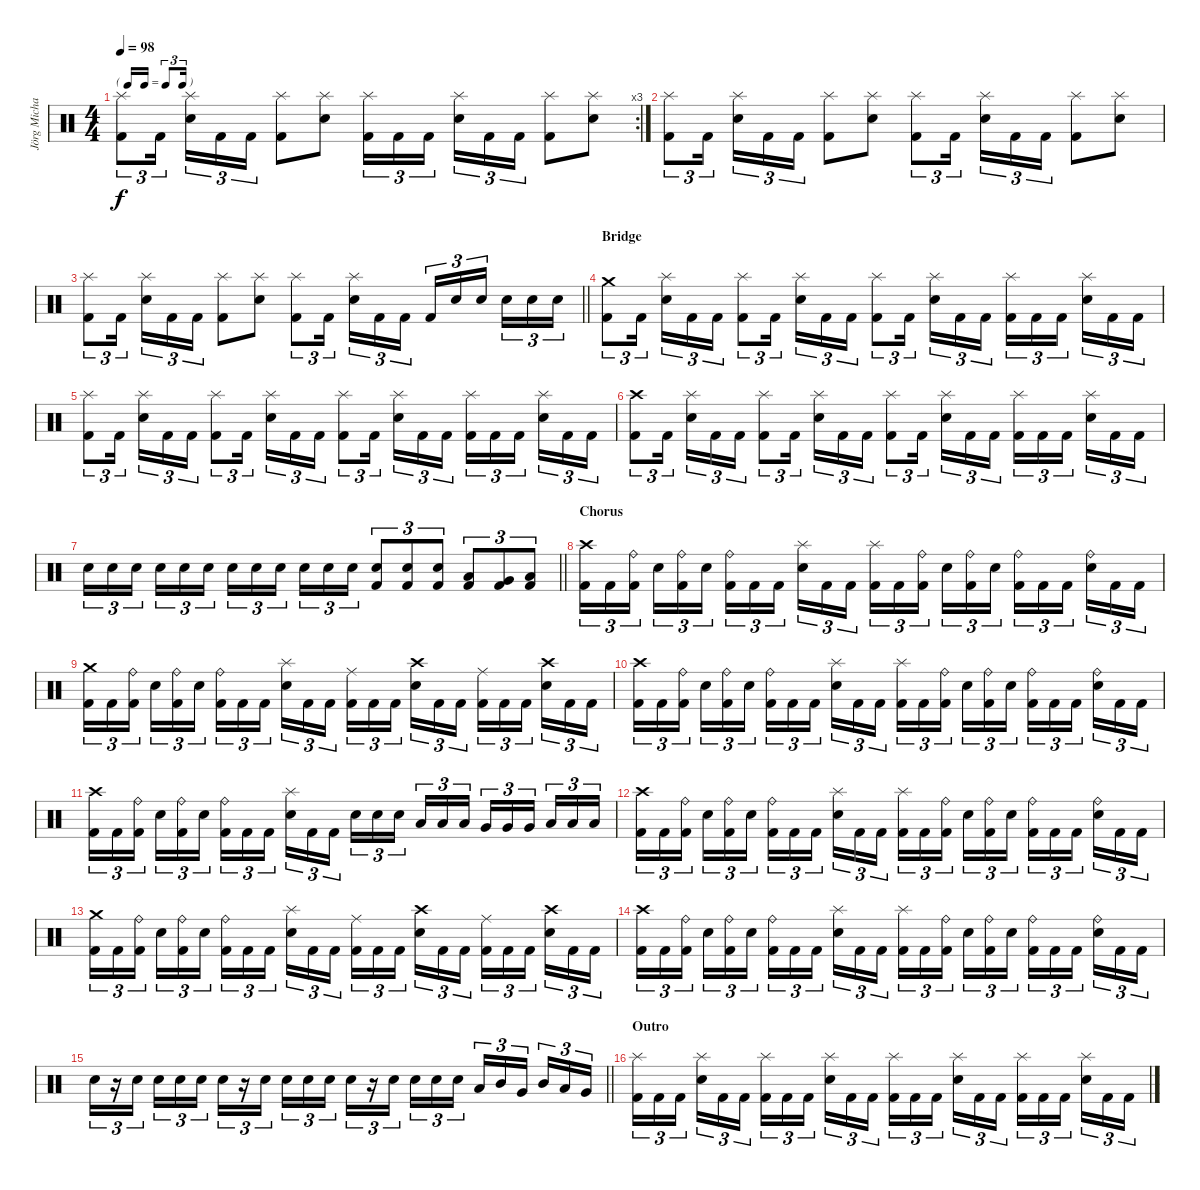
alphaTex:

\track ("Jörg Michael" "Jörg Micha") {instrument percussion}
\staff {score}
\articulation defaults
\rc 3
\ts (4 4)
\tf triplet16th
\tempo 98
\clef neutral
\ks c
("Splash (hit)" "Kick (hit) 2").8{tu (3 2) dy f} "Kick (hit) 2".16{tu (3 2) beam splitsecondary} ("Splash (hit)" "Snare (hit) 2").16{tu (3 2)} "Kick (hit) 2".16{tu (3 2)} "Kick (hit) 2".16{tu (3 2)} ("Splash (hit)" "Kick (hit) 2").8 ("Splash (hit)" "Snare (hit) 2").8 ("Splash (hit)" "Kick (hit) 2").16{tu (3 2)} "Kick (hit) 2".16{tu (3 2)} "Kick (hit) 2".16{tu (3 2) beam splitsecondary} ("Splash (hit)" "Snare (hit) 2").16{tu (3 2)} "Kick (hit) 2".16{tu (3 2)} "Kick (hit) 2".16{tu (3 2)} ("Splash (hit)" "Kick (hit) 2").8 ("Splash (hit)" "Snare (hit) 2").8 |
("Splash (hit)" "Kick (hit) 2").8{tu (3 2)} "Kick (hit) 2".16{tu (3 2) beam splitsecondary} ("Splash (hit)" "Snare (hit) 2").16{tu (3 2)} "Kick (hit) 2".16{tu (3 2)} "Kick (hit) 2".16{tu (3 2)} ("Splash (hit)" "Kick (hit) 2").8 ("Splash (hit)" "Snare (hit) 2").8 ("Splash (hit)" "Kick (hit) 2").8{tu (3 2)} "Kick (hit) 2".16{tu (3 2) beam splitsecondary} ("Splash (hit)" "Snare (hit) 2").16{tu (3 2)} "Kick (hit) 2".16{tu (3 2)} "Kick (hit) 2".16{tu (3 2)} ("Splash (hit)" "Kick (hit) 2").8 ("Splash (hit)" "Snare (hit) 2").8 |
\barLineRight lightlight
("Splash (hit)" "Kick (hit) 2").8{tu (3 2)} "Kick (hit) 2".16{tu (3 2) beam splitsecondary} ("Splash (hit)" "Snare (hit) 2").16{tu (3 2)} "Kick (hit) 2".16{tu (3 2)} "Kick (hit) 2".16{tu (3 2)} ("Splash (hit)" "Kick (hit) 2").8 ("Splash (hit)" "Snare (hit) 2").8 ("Splash (hit)" "Kick (hit) 2").8{tu (3 2)} "Kick (hit) 2".16{tu (3 2) beam splitsecondary} ("Splash (hit)" "Snare (hit) 2").16{tu (3 2)} "Kick (hit) 2".16{tu (3 2)} "Kick (hit) 2".16{tu (3 2)} "Kick (hit) 2".16{tu (3 2)} "Snare (hit) 2".16{tu (3 2)} "Snare (hit) 2".16{tu (3 2) beam splitsecondary} "Snare (hit) 2".16{tu (3 2)} "Snare (hit) 2".16{tu (3 2)} "Snare (hit) 2".16{tu (3 2)} |
\section ("" "Bridge")
("Crash medium (hit)" "Kick (hit) 2").8{tu (3 2)} "Kick (hit) 2".16{tu (3 2) beam splitsecondary} ("Splash (hit)" "Snare (hit) 2").16{tu (3 2)} "Kick (hit) 2".16{tu (3 2)} "Kick (hit) 2".16{tu (3 2)} ("Splash (hit)" "Kick (hit) 2").8{tu (3 2)} "Kick (hit) 2".16{tu (3 2) beam splitsecondary} ("Splash (hit)" "Snare (hit) 2").16{tu (3 2)} "Kick (hit) 2".16{tu (3 2)} "Kick (hit) 2".16{tu (3 2)} ("Splash (hit)" "Kick (hit) 2").8{tu (3 2)} "Kick (hit) 2".16{tu (3 2) beam splitsecondary} ("Splash (hit)" "Snare (hit) 2").16{tu (3 2)} "Kick (hit) 2".16{tu (3 2)} "Kick (hit) 2".16{tu (3 2)} ("Splash (hit)" "Kick (hit) 2").16{tu (3 2)} "Kick (hit) 2".16{tu (3 2)} "Kick (hit) 2".16{tu (3 2) beam splitsecondary} ("Splash (hit)" "Snare (hit) 2").16{tu (3 2)} "Kick (hit) 2".16{tu (3 2)} "Kick (hit) 2".16{tu (3 2)} |
("Splash (hit)" "Kick (hit) 2").8{tu (3 2)} "Kick (hit) 2".16{tu (3 2) beam splitsecondary} ("Splash (hit)" "Snare (hit) 2").16{tu (3 2)} "Kick (hit) 2".16{tu (3 2)} "Kick (hit) 2".16{tu (3 2)} ("Splash (hit)" "Kick (hit) 2").8{tu (3 2)} "Kick (hit) 2".16{tu (3 2) beam splitsecondary} ("Splash (hit)" "Snare (hit) 2").16{tu (3 2)} "Kick (hit) 2".16{tu (3 2)} "Kick (hit) 2".16{tu (3 2)} ("Splash (hit)" "Kick (hit) 2").8{tu (3 2)} "Kick (hit) 2".16{tu (3 2) beam splitsecondary} ("Splash (hit)" "Snare (hit) 2").16{tu (3 2)} "Kick (hit) 2".16{tu (3 2)} "Kick (hit) 2".16{tu (3 2)} ("Splash (hit)" "Kick (hit) 2").16{tu (3 2)} "Kick (hit) 2".16{tu (3 2)} "Kick (hit) 2".16{tu (3 2) beam splitsecondary} ("Splash (hit)" "Snare (hit) 2").16{tu (3 2)} "Kick (hit) 2".16{tu (3 2)} "Kick (hit) 2".16{tu (3 2)} |
("Crash high (hit)" "Kick (hit) 2").8{tu (3 2)} "Kick (hit) 2".16{tu (3 2) beam splitsecondary} ("Splash (hit)" "Snare (hit) 2").16{tu (3 2)} "Kick (hit) 2".16{tu (3 2)} "Kick (hit) 2".16{tu (3 2)} ("Splash (hit)" "Kick (hit) 2").8{tu (3 2)} "Kick (hit) 2".16{tu (3 2) beam splitsecondary} ("Splash (hit)" "Snare (hit) 2").16{tu (3 2)} "Kick (hit) 2".16{tu (3 2)} "Kick (hit) 2".16{tu (3 2)} ("Splash (hit)" "Kick (hit) 2").8{tu (3 2)} "Kick (hit) 2".16{tu (3 2) beam splitsecondary} ("Splash (hit)" "Snare (hit) 2").16{tu (3 2)} "Kick (hit) 2".16{tu (3 2)} "Kick (hit) 2".16{tu (3 2)} ("Splash (hit)" "Kick (hit) 2").16{tu (3 2)} "Kick (hit) 2".16{tu (3 2)} "Kick (hit) 2".16{tu (3 2) beam splitsecondary} ("Splash (hit)" "Snare (hit) 2").16{tu (3 2)} "Kick (hit) 2".16{tu (3 2)} "Kick (hit) 2".16{tu (3 2)} |
\barLineRight lightlight "Snare (hit) 2".16{tu (3 2)} "Snare (hit) 2".16{tu (3 2)} "Snare (hit) 2".16{tu (3 2) beam splitsecondary} "Snare (hit) 2".16{tu (3 2)} "Snare (hit) 2".16{tu (3 2)} "Snare (hit) 2".16{tu (3 2)} "Snare (hit) 2".16{tu (3 2)} "Snare (hit) 2".16{tu (3 2)} "Snare (hit) 2".16{tu (3 2) beam splitsecondary} "Snare (hit) 2".16{tu (3 2)} "Snare (hit) 2".16{tu (3 2)} "Snare (hit) 2".16{tu (3 2)}
("Snare (hit) 2" "Kick (hit) 2").8{tu (3 2)} ("Snare (hit) 2" "Kick (hit) 2").8{tu (3 2)} ("Snare (hit) 2" "Kick (hit) 2").8{tu (3 2)} ("Low Tom (hit)" "Kick (hit) 2").8{tu (3 2)} ("Very Low Tom (hit)" "Kick (hit) 2").8{tu (3 2)} ("Low Floor Tom (hit)" "Kick (hit) 2").8{tu (3 2)} |
\section ("" "Chorus")
("Crash high (hit)" "Kick (hit) 2").16{tu (3 2)} "Kick (hit) 2".16{tu (3 2)} ("Ride (bell)" "Kick (hit) 2").16{tu (3 2) beam splitsecondary} "Snare (hit) 2".16{tu (3 2)} ("Ride (bell)" "Kick (hit) 2").16{tu (3 2)} "Snare (hit) 2".16{tu (3 2)} ("Ride (bell)" "Kick (hit) 2").16{tu (3 2)} "Kick (hit) 2".16{tu (3 2)} "Kick (hit) 2".16{tu (3 2) beam splitsecondary} ("Splash (hit)" "Snare (hit) 2").16{tu (3 2)} "Kick (hit) 2".16{tu (3 2)} "Kick (hit) 2".16{tu (3 2)} ("Splash (hit)" "Kick (hit) 2").16{tu (3 2)} "Kick (hit) 2".16{tu (3 2)} ("Ride (bell)" "Kick (hit) 2").16{tu (3 2) beam splitsecondary} "Snare (hit) 2".16{tu (3 2)} ("Ride (bell)" "Kick (hit) 2").16{tu (3 2)} "Snare (hit) 2".16{tu (3 2)} ("Ride (bell)" "Kick (hit) 2").16{tu (3 2)} "Kick (hit) 2".16{tu (3 2)} "Kick (hit) 2".16{tu (3 2) beam splitsecondary} ("Ride (bell)" "Snare (hit) 2").16{tu (3 2)} "Kick (hit) 2".16{tu (3 2)} "Kick (hit) 2".16{tu (3 2)} |
("Crash medium (hit)" "Kick (hit) 2").16{tu (3 2)} "Kick (hit) 2".16{tu (3 2)} ("Ride (bell)" "Kick (hit) 2").16{tu (3 2) beam splitsecondary} "Snare (hit) 2".16{tu (3 2)} ("Ride (bell)" "Kick (hit) 2").16{tu (3 2)} "Snare (hit) 2".16{tu (3 2)} ("Ride (bell)" "Kick (hit) 2").16{tu (3 2)} "Kick (hit) 2".16{tu (3 2)} "Kick (hit) 2".16{tu (3 2) beam splitsecondary} ("Splash (hit)" "Snare (hit) 2").16{tu (3 2)} "Kick (hit) 2".16{tu (3 2)} "Kick (hit) 2".16{tu (3 2)} ("Ride (middle)" "Kick (hit) 2").16{tu (3 2)} "Kick (hit) 2".16{tu (3 2)} "Kick (hit) 2".16{tu (3 2) beam splitsecondary} ("Crash high (hit)" "Snare (hit) 2").16{tu (3 2)} "Kick (hit) 2".16{tu (3 2)} "Kick (hit) 2".16{tu (3 2)} ("Ride (middle)" "Kick (hit) 2").16{tu (3 2)} "Kick (hit) 2".16{tu (3 2)} "Kick (hit) 2".16{tu (3 2) beam splitsecondary} ("Crash high (hit)" "Snare (hit) 2").16{tu (3 2)} "Kick (hit) 2".16{tu (3 2)} "Kick (hit) 2".16{tu (3 2)} |
("Crash high (hit)" "Kick (hit) 2").16{tu (3 2)} "Kick (hit) 2".16{tu (3 2)} ("Ride (bell)" "Kick (hit) 2").16{tu (3 2) beam splitsecondary} "Snare (hit) 2".16{tu (3 2)} ("Ride (bell)" "Kick (hit) 2").16{tu (3 2)} "Snare (hit) 2".16{tu (3 2)} ("Ride (bell)" "Kick (hit) 2").16{tu (3 2)} "Kick (hit) 2".16{tu (3 2)} "Kick (hit) 2".16{tu (3 2) beam splitsecondary} ("Splash (hit)" "Snare (hit) 2").16{tu (3 2)} "Kick (hit) 2".16{tu (3 2)} "Kick (hit) 2".16{tu (3 2)} ("Splash (hit)" "Kick (hit) 2").16{tu (3 2)} "Kick (hit) 2".16{tu (3 2)} ("Ride (bell)" "Kick (hit) 2").16{tu (3 2) beam splitsecondary} "Snare (hit) 2".16{tu (3 2)} ("Ride (bell)" "Kick (hit) 2").16{tu (3 2)} "Snare (hit) 2".16{tu (3 2)} ("Ride (bell)" "Kick (hit) 2").16{tu (3 2)} "Kick (hit) 2".16{tu (3 2)} "Kick (hit) 2".16{tu (3 2) beam splitsecondary} ("Ride (bell)" "Snare (hit) 2").16{tu (3 2)} "Kick (hit) 2".16{tu (3 2)} "Kick (hit) 2".16{tu (3 2)} |
("Crash high (hit)" "Kick (hit) 2").16{tu (3 2)} "Kick (hit) 2".16{tu (3 2)} ("Ride (bell)" "Kick (hit) 2").16{tu (3 2) beam splitsecondary} "Snare (hit) 2".16{tu (3 2)} ("Ride (bell)" "Kick (hit) 2").16{tu (3 2)} "Snare (hit) 2".16{tu (3 2)} ("Ride (bell)" "Kick (hit) 2").16{tu (3 2)} "Kick (hit) 2".16{tu (3 2)} "Kick (hit) 2".16{tu (3 2) beam splitsecondary} ("Splash (hit)" "Snare (hit) 2").16{tu (3 2)} "Kick (hit) 2".16{tu (3 2)} "Kick (hit) 2".16{tu (3 2)} "Snare (hit) 2".16{tu (3 2)} "Snare (hit) 2".16{tu (3 2)} "Snare (hit) 2".16{tu (3 2) beam splitsecondary} "Low Tom (hit)".16{tu (3 2)} "Low Tom (hit)".16{tu (3 2)} "Low Tom (hit)".16{tu (3 2)} "Very Low Tom (hit)".16{tu (3 2)} "Very Low Tom (hit)".16{tu (3 2)} "Very Low Tom (hit)".16{tu (3 2) beam splitsecondary} "Low Floor Tom (hit)".16{tu (3 2)} "Low Floor Tom (hit)".16{tu (3 2)} "Low Floor Tom (hit)".16{tu (3 2)} |
("Crash high (hit)" "Kick (hit) 2").16{tu (3 2)} "Kick (hit) 2".16{tu (3 2)} ("Ride (bell)" "Kick (hit) 2").16{tu (3 2) beam splitsecondary} "Snare (hit) 2".16{tu (3 2)} ("Ride (bell)" "Kick (hit) 2").16{tu (3 2)} "Snare (hit) 2".16{tu (3 2)} ("Ride (bell)" "Kick (hit) 2").16{tu (3 2)} "Kick (hit) 2".16{tu (3 2)} "Kick (hit) 2".16{tu (3 2) beam splitsecondary} ("Splash (hit)" "Snare (hit) 2").16{tu (3 2)} "Kick (hit) 2".16{tu (3 2)} "Kick (hit) 2".16{tu (3 2)} ("Splash (hit)" "Kick (hit) 2").16{tu (3 2)} "Kick (hit) 2".16{tu (3 2)} ("Ride (bell)" "Kick (hit) 2").16{tu (3 2) beam splitsecondary} "Snare (hit) 2".16{tu (3 2)} ("Ride (bell)" "Kick (hit) 2").16{tu (3 2)} "Snare (hit) 2".16{tu (3 2)} ("Ride (bell)" "Kick (hit) 2").16{tu (3 2)} "Kick (hit) 2".16{tu (3 2)} "Kick (hit) 2".16{tu (3 2) beam splitsecondary} ("Ride (bell)" "Snare (hit) 2").16{tu (3 2)} "Kick (hit) 2".16{tu (3 2)} "Kick (hit) 2".16{tu (3 2)} |
("Crash medium (hit)" "Kick (hit) 2").16{tu (3 2)} "Kick (hit) 2".16{tu (3 2)} ("Ride (bell)" "Kick (hit) 2").16{tu (3 2) beam splitsecondary} "Snare (hit) 2".16{tu (3 2)} ("Ride (bell)" "Kick (hit) 2").16{tu (3 2)} "Snare (hit) 2".16{tu (3 2)} ("Ride (bell)" "Kick (hit) 2").16{tu (3 2)} "Kick (hit) 2".16{tu (3 2)} "Kick (hit) 2".16{tu (3 2) beam splitsecondary} ("Splash (hit)" "Snare (hit) 2").16{tu (3 2)} "Kick (hit) 2".16{tu (3 2)} "Kick (hit) 2".16{tu (3 2)} ("Ride (middle)" "Kick (hit) 2").16{tu (3 2)} "Kick (hit) 2".16{tu (3 2)} "Kick (hit) 2".16{tu (3 2) beam splitsecondary} ("Crash high (hit)" "Snare (hit) 2").16{tu (3 2)} "Kick (hit) 2".16{tu (3 2)} "Kick (hit) 2".16{tu (3 2)} ("Ride (middle)" "Kick (hit) 2").16{tu (3 2)} "Kick (hit) 2".16{tu (3 2)} "Kick (hit) 2".16{tu (3 2) beam splitsecondary} ("Crash high (hit)" "Snare (hit) 2").16{tu (3 2)} "Kick (hit) 2".16{tu (3 2)} "Kick (hit) 2".16{tu (3 2)} |
("Crash high (hit)" "Kick (hit) 2").16{tu (3 2)} "Kick (hit) 2".16{tu (3 2)} ("Ride (bell)" "Kick (hit) 2").16{tu (3 2) beam splitsecondary} "Snare (hit) 2".16{tu (3 2)} ("Ride (bell)" "Kick (hit) 2").16{tu (3 2)} "Snare (hit) 2".16{tu (3 2)} ("Ride (bell)" "Kick (hit) 2").16{tu (3 2)} "Kick (hit) 2".16{tu (3 2)} "Kick (hit) 2".16{tu (3 2) beam splitsecondary} ("Splash (hit)" "Snare (hit) 2").16{tu (3 2)} "Kick (hit) 2".16{tu (3 2)} "Kick (hit) 2".16{tu (3 2)} ("Splash (hit)" "Kick (hit) 2").16{tu (3 2)} "Kick (hit) 2".16{tu (3 2)} ("Ride (bell)" "Kick (hit) 2").16{tu (3 2) beam splitsecondary} "Snare (hit) 2".16{tu (3 2)} ("Ride (bell)" "Kick (hit) 2").16{tu (3 2)} "Snare (hit) 2".16{tu (3 2)} ("Ride (bell)" "Kick (hit) 2").16{tu (3 2)} "Kick (hit) 2".16{tu (3 2)} "Kick (hit) 2".16{tu (3 2) beam splitsecondary} ("Ride (bell)" "Snare (hit) 2").16{tu (3 2)} "Kick (hit) 2".16{tu (3 2)} "Kick (hit) 2".16{tu (3 2)} |
\barLineRight lightlight "Snare (hit) 2".16{tu (3 2)}
r.16{tu (3 2)} "Snare (hit) 2".16{tu (3 2) beam splitsecondary} "Snare (hit) 2".16{tu (3 2)} "Snare (hit) 2".16{tu (3 2)} "Snare (hit) 2".16{tu (3 2)} "Snare (hit) 2".16{tu (3 2)} r.16{tu (3 2)} "Snare (hit) 2".16{tu (3 2) beam splitsecondary} "Snare (hit) 2".16{tu (3 2)} "Snare (hit) 2".16{tu (3 2)} "Snare (hit) 2".16{tu (3 2)} "Snare (hit) 2".16{tu (3 2)} r.16{tu (3 2)} "Snare (hit) 2".16{tu (3 2) beam splitsecondary} "Snare (hit) 2".16{tu (3 2)} "Snare (hit) 2".16{tu (3 2)} "Snare (hit) 2".16{tu (3 2)} "Low Tom (hit)".16{tu (3 2)} "Mid Tom (hit)".16{tu (3 2)} "Very Low Tom (hit)".16{tu (3 2) beam splitsecondary} "Mid Tom (hit)".16{tu (3 2)} "Low Tom (hit)".16{tu (3 2)} "Very Low Tom (hit)".16{tu (3 2)} |
\section ("" "Outro")
("Splash (hit)" "Kick (hit) 2").16{tu (3 2)} "Kick (hit) 2".16{tu (3 2)} "Kick (hit) 2".16{tu (3 2) beam splitsecondary} ("Splash (hit)" "Snare (hit) 2").16{tu (3 2)} "Kick (hit) 2".16{tu (3 2)} "Kick (hit) 2".16{tu (3 2)} ("Splash (hit)" "Kick (hit) 2").16{tu (3 2)} "Kick (hit) 2".16{tu (3 2)} "Kick (hit) 2".16{tu (3 2) beam splitsecondary} ("Splash (hit)" "Snare (hit) 2").16{tu (3 2)} "Kick (hit) 2".16{tu (3 2)} "Kick (hit) 2".16{tu (3 2)} ("Splash (hit)" "Kick (hit) 2").16{tu (3 2)} "Kick (hit) 2".16{tu (3 2)} "Kick (hit) 2".16{tu (3 2) beam splitsecondary} ("Splash (hit)" "Snare (hit) 2").16{tu (3 2)} "Kick (hit) 2".16{tu (3 2)} "Kick (hit) 2".16{tu (3 2)} ("Splash (hit)" "Kick (hit) 2").16{tu (3 2)} "Kick (hit) 2".16{tu (3 2)} "Kick (hit) 2".16{tu (3 2) beam splitsecondary} ("Splash (hit)" "Snare (hit) 2").16{tu (3 2)} "Kick (hit) 2".16{tu (3 2)} "Kick (hit) 2".16{tu (3 2)}
